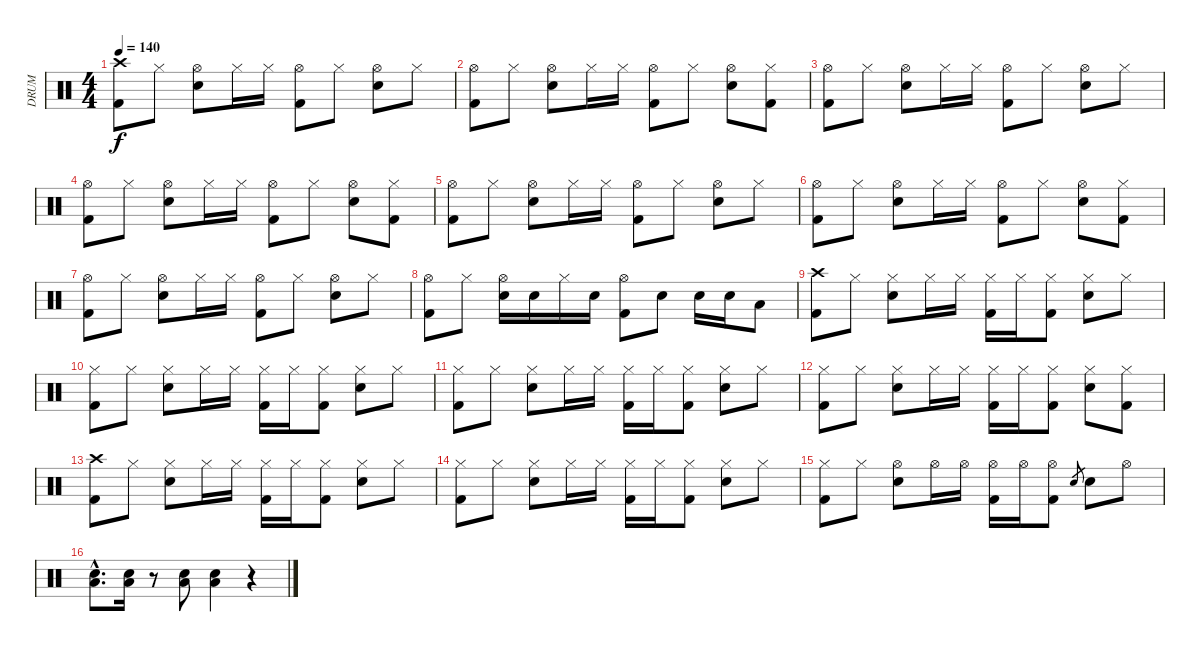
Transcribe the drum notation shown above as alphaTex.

\track ("DRUM" "DRUM") {instrument percussion}
\staff {score}
\articulation defaults
\ts (4 4)
\tempo 140
\clef neutral
\ks c
("Crash high (hit)" "Kick (hit) 2").8{dy f} "Hi-Hat (closed)".8 ("Hi-Hat (open)" "Electric Snare (hit)").8 "Hi-Hat (closed)".16 "Hi-Hat (closed)".16 ("Hi-Hat (open)" "Kick (hit) 2").8 "Hi-Hat (closed)".8 ("Hi-Hat (open)" "Electric Snare (hit)").8 "Hi-Hat (closed)".8 |
("Hi-Hat (open)" "Kick (hit) 2").8 "Hi-Hat (closed)".8 ("Hi-Hat (open)" "Electric Snare (hit)").8 "Hi-Hat (closed)".16 "Hi-Hat (closed)".16 ("Hi-Hat (open)" "Kick (hit) 2").8 "Hi-Hat (closed)".8 ("Hi-Hat (open)" "Electric Snare (hit)").8 ("Hi-Hat (closed)" "Kick (hit) 2").8 |
("Hi-Hat (open)" "Kick (hit) 2").8 "Hi-Hat (closed)".8 ("Hi-Hat (open)" "Electric Snare (hit)").8 "Hi-Hat (closed)".16 "Hi-Hat (closed)".16 ("Hi-Hat (open)" "Kick (hit) 2").8 "Hi-Hat (closed)".8 ("Hi-Hat (open)" "Electric Snare (hit)").8 "Hi-Hat (closed)".8 |
("Hi-Hat (open)" "Kick (hit) 2").8 "Hi-Hat (closed)".8 ("Hi-Hat (open)" "Electric Snare (hit)").8 "Hi-Hat (closed)".16 "Hi-Hat (closed)".16 ("Hi-Hat (open)" "Kick (hit) 2").8 "Hi-Hat (closed)".8 ("Hi-Hat (open)" "Electric Snare (hit)").8 ("Hi-Hat (closed)" "Kick (hit) 2").8 |
("Hi-Hat (open)" "Kick (hit) 2").8 "Hi-Hat (closed)".8 ("Hi-Hat (open)" "Electric Snare (hit)").8 "Hi-Hat (closed)".16 "Hi-Hat (closed)".16 ("Hi-Hat (open)" "Kick (hit) 2").8 "Hi-Hat (closed)".8 ("Hi-Hat (open)" "Electric Snare (hit)").8 "Hi-Hat (closed)".8 |
("Hi-Hat (open)" "Kick (hit) 2").8 "Hi-Hat (closed)".8 ("Hi-Hat (open)" "Electric Snare (hit)").8 "Hi-Hat (closed)".16 "Hi-Hat (closed)".16 ("Hi-Hat (open)" "Kick (hit) 2").8 "Hi-Hat (closed)".8 ("Hi-Hat (open)" "Electric Snare (hit)").8 ("Hi-Hat (closed)" "Kick (hit) 2").8 |
("Hi-Hat (open)" "Kick (hit) 2").8 "Hi-Hat (closed)".8 ("Hi-Hat (open)" "Electric Snare (hit)").8 "Hi-Hat (closed)".16 "Hi-Hat (closed)".16 ("Hi-Hat (open)" "Kick (hit) 2").8 "Hi-Hat (closed)".8 ("Hi-Hat (open)" "Electric Snare (hit)").8 "Hi-Hat (closed)".8 |
("Hi-Hat (open)" "Kick (hit) 2").8 "Hi-Hat (closed)".8 ("Hi-Hat (open)" "Electric Snare (hit)").16 "Electric Snare (hit)".16 "Hi-Hat (closed)".16 "Electric Snare (hit)".16 ("Hi-Hat (open)" "Kick (hit) 2").8 "Electric Snare (hit)".8 "Electric Snare (hit)".16 "Electric Snare (hit)".16 "Low Floor Tom (hit)".8 |
("Crash high (hit)" "Kick (hit) 2").8 "Hi-Hat (closed)".8 ("Hi-Hat (closed)" "Electric Snare (hit)").8 "Hi-Hat (closed)".16 "Hi-Hat (closed)".16 ("Hi-Hat (closed)" "Kick (hit) 2").16 "Hi-Hat (closed)".16 ("Hi-Hat (closed)" "Kick (hit) 2").8 ("Hi-Hat (closed)" "Electric Snare (hit)").8 "Hi-Hat (closed)".8 |
("Hi-Hat (closed)" "Kick (hit) 2").8 "Hi-Hat (closed)".8 ("Hi-Hat (closed)" "Electric Snare (hit)").8 "Hi-Hat (closed)".16 "Hi-Hat (closed)".16 ("Hi-Hat (closed)" "Kick (hit) 2").16 "Hi-Hat (closed)".16 ("Hi-Hat (closed)" "Kick (hit) 2").8 ("Hi-Hat (closed)" "Electric Snare (hit)").8 "Hi-Hat (closed)".8 |
("Hi-Hat (closed)" "Kick (hit) 2").8 "Hi-Hat (closed)".8 ("Hi-Hat (closed)" "Electric Snare (hit)").8 "Hi-Hat (closed)".16 "Hi-Hat (closed)".16 ("Hi-Hat (closed)" "Kick (hit) 2").16 "Hi-Hat (closed)".16 ("Hi-Hat (closed)" "Kick (hit) 2").8 ("Hi-Hat (closed)" "Electric Snare (hit)").8 "Hi-Hat (closed)".8 |
("Hi-Hat (closed)" "Kick (hit) 2").8 "Hi-Hat (closed)".8 ("Hi-Hat (closed)" "Electric Snare (hit)").8 "Hi-Hat (closed)".16 "Hi-Hat (closed)".16 ("Hi-Hat (closed)" "Kick (hit) 2").16 "Hi-Hat (closed)".16 ("Hi-Hat (closed)" "Kick (hit) 2").8 ("Hi-Hat (closed)" "Electric Snare (hit)").8 ("Hi-Hat (closed)" "Kick (hit) 2").8 |
("Crash high (hit)" "Kick (hit) 2").8 "Hi-Hat (closed)".8 ("Hi-Hat (closed)" "Electric Snare (hit)").8 "Hi-Hat (closed)".16 "Hi-Hat (closed)".16 ("Hi-Hat (closed)" "Kick (hit) 2").16 "Hi-Hat (closed)".16 ("Hi-Hat (closed)" "Kick (hit) 2").8 ("Hi-Hat (closed)" "Electric Snare (hit)").8 "Hi-Hat (closed)".8 |
("Hi-Hat (closed)" "Kick (hit) 2").8 "Hi-Hat (closed)".8 ("Hi-Hat (closed)" "Electric Snare (hit)").8 "Hi-Hat (closed)".16 "Hi-Hat (closed)".16 ("Hi-Hat (closed)" "Kick (hit) 2").16 "Hi-Hat (closed)".16 ("Hi-Hat (closed)" "Kick (hit) 2").8 ("Hi-Hat (closed)" "Electric Snare (hit)").8 "Hi-Hat (closed)".8 |
("Hi-Hat (closed)" "Kick (hit) 2").8 "Hi-Hat (closed)".8 ("Hi-Hat (open)" "Electric Snare (hit)").8 "Hi-Hat (open)".16 "Hi-Hat (open)".16 ("Hi-Hat (open)" "Kick (hit) 2").16 "Hi-Hat (open)".16 ("Hi-Hat (open)" "Kick (hit) 2").8 "Electric Snare (hit)".8{gr} "Electric Snare (hit)".8 "Hi-Hat (open)".8 |
("Electric Snare (hit)"{hac} "Low Floor Tom (hit)"{hac}).8{d} ("Electric Snare (hit)" "Low Floor Tom (hit)").16 r.8 ("Electric Snare (hit)" "Low Floor Tom (hit)").8 ("Electric Snare (hit)" "Low Floor Tom (hit)").4 r.4
